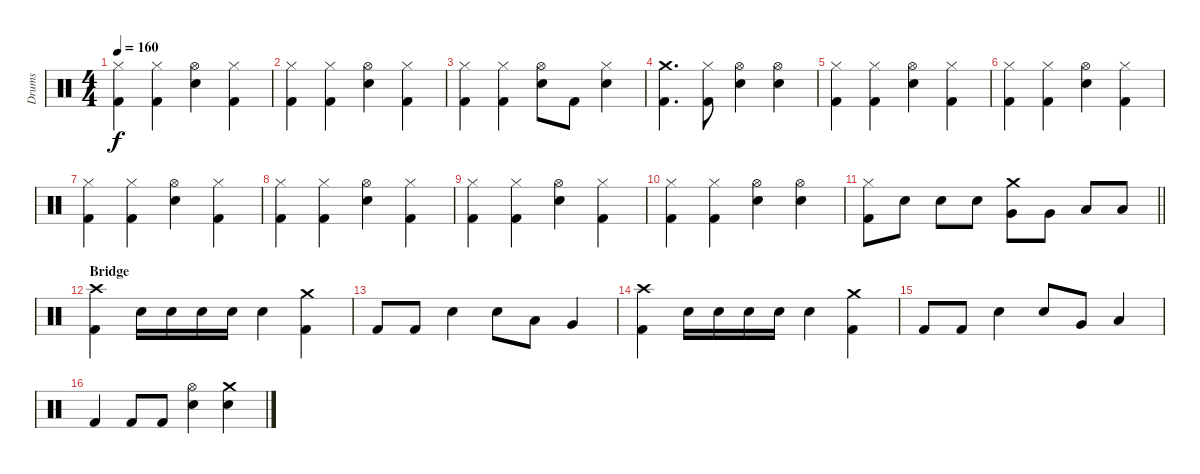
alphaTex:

\track ("Drums" "Drums") {instrument percussion}
\staff {score}
\articulation defaults
\ts (4 4)
\tempo 160
\clef neutral
\ks c
("Hi-Hat (closed)" "Kick (hit) 2").4{dy f} ("Hi-Hat (closed)" "Kick (hit) 2").4 ("Hi-Hat (open)" "Snare (hit) 2").4 ("Hi-Hat (closed)" "Kick (hit) 2").4 |
("Hi-Hat (closed)" "Kick (hit) 2").4 ("Hi-Hat (closed)" "Kick (hit) 2").4 ("Hi-Hat (open)" "Snare (hit) 2").4 ("Hi-Hat (closed)" "Kick (hit) 2").4 |
("Hi-Hat (closed)" "Kick (hit) 2").4 ("Hi-Hat (closed)" "Kick (hit) 2").4 ("Hi-Hat (open)" "Snare (hit) 2").8 "Kick (hit) 2".8 ("Hi-Hat (closed)" "Snare (hit) 2").4 |
("Crash medium (hit)" "Kick (hit) 2").4{d} ("Hi-Hat (closed)" "Kick (hit) 2").8 ("Hi-Hat (open)" "Snare (hit) 2").4 ("Hi-Hat (open)" "Snare (hit) 2").4 |
("Hi-Hat (closed)" "Kick (hit) 2").4 ("Hi-Hat (closed)" "Kick (hit) 2").4 ("Hi-Hat (open)" "Snare (hit) 2").4 ("Hi-Hat (closed)" "Kick (hit) 2").4 |
("Hi-Hat (closed)" "Kick (hit) 2").4 ("Hi-Hat (closed)" "Kick (hit) 2").4 ("Hi-Hat (open)" "Snare (hit) 2").4 ("Hi-Hat (closed)" "Kick (hit) 2").4 |
("Hi-Hat (closed)" "Kick (hit) 2").4 ("Hi-Hat (closed)" "Kick (hit) 2").4 ("Hi-Hat (open)" "Snare (hit) 2").4 ("Hi-Hat (closed)" "Kick (hit) 2").4 |
("Hi-Hat (closed)" "Kick (hit) 2").4 ("Hi-Hat (closed)" "Kick (hit) 2").4 ("Hi-Hat (open)" "Snare (hit) 2").4 ("Hi-Hat (closed)" "Kick (hit) 2").4 |
("Hi-Hat (closed)" "Kick (hit) 2").4 ("Hi-Hat (closed)" "Kick (hit) 2").4 ("Hi-Hat (open)" "Snare (hit) 2").4 ("Hi-Hat (closed)" "Kick (hit) 2").4 |
("Hi-Hat (closed)" "Kick (hit) 2").4 ("Hi-Hat (closed)" "Kick (hit) 2").4 ("Hi-Hat (open)" "Snare (hit) 2").4 ("Hi-Hat (open)" "Snare (hit) 2").4 |
\barLineRight lightlight
("Hi-Hat (closed)" "Kick (hit) 2").8 "Snare (hit) 2".8 "Snare (hit) 2".8 "Snare (hit) 2".8 ("Crash medium (hit)" "Very Low Tom (hit)").8 "Very Low Tom (hit)".8 "Low Tom (hit)".8 "Low Tom (hit)".8 |
\section ("" "Bridge")
("Crash high (hit)" "Kick (hit) 2").4 "Snare (hit) 2".16 "Snare (hit) 2".16 "Snare (hit) 2".16 "Snare (hit) 2".16 "Snare (hit) 2".4 ("Crash medium (hit)" "Kick (hit) 2").4 |
"Kick (hit) 2".8 "Kick (hit) 2".8 "Snare (hit) 2".4 "Snare (hit) 2".8 "Low Tom (hit)".8 "Very Low Tom (hit)".4 |
("Crash high (hit)" "Kick (hit) 2").4 "Snare (hit) 2".16 "Snare (hit) 2".16 "Snare (hit) 2".16 "Snare (hit) 2".16 "Snare (hit) 2".4 ("Crash medium (hit)" "Kick (hit) 2").4 |
"Kick (hit) 2".8 "Kick (hit) 2".8 "Snare (hit) 2".4 "Snare (hit) 2".8 "Very Low Tom (hit)".8 "Low Floor Tom (hit)".4 |
"Kick (hit) 2".4 "Kick (hit) 2".8 "Kick (hit) 2".8 ("Hi-Hat (open)" "Snare (hit) 2").4 ("Crash medium (hit)" "Snare (hit) 2").4
